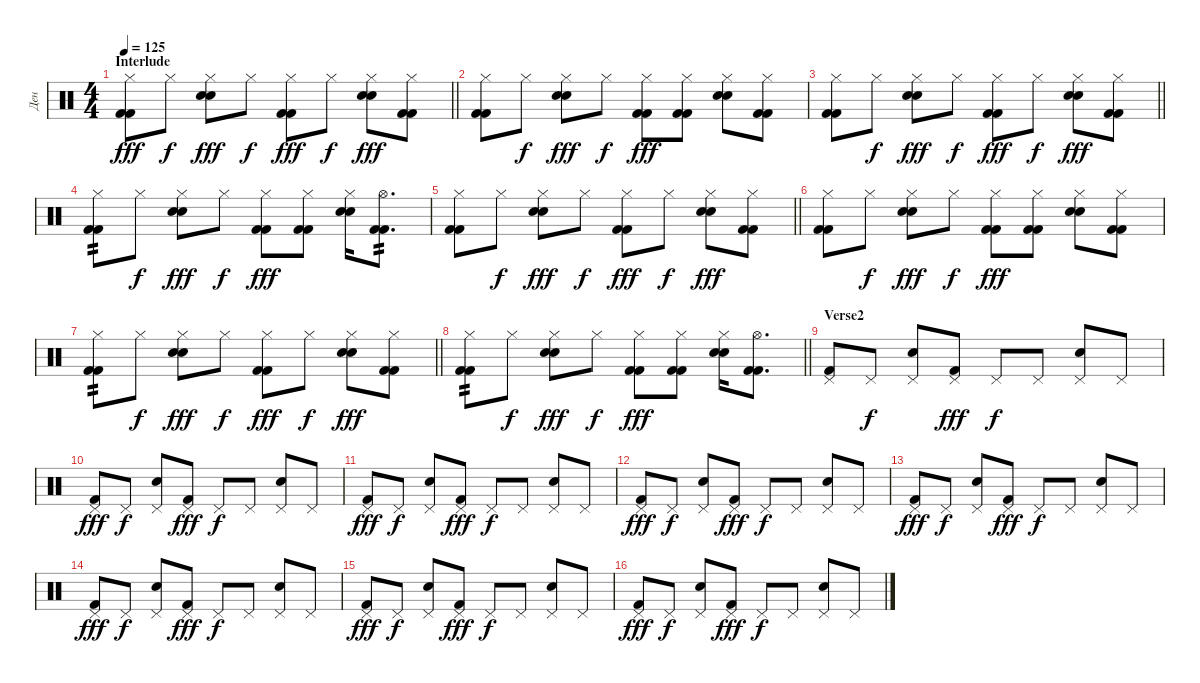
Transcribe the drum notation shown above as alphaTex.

\track ("Ден" "Ден") {instrument percussion}
\staff {score}
\articulation defaults
\ts (4 4)
\section ("" "Interlude")
\tempo 125
\clef neutral
\barLineRight lightlight
\ks c
("Hi-Hat (closed)" "Kick (hit) 2" "Kick (hit) 2").8{dy fff} "Hi-Hat (closed)".8{dy f} ("Hi-Hat (closed)" "Electric Snare (hit)" "Electric Snare (hit)").8{dy fff} "Hi-Hat (closed)".8{dy f} ("Hi-Hat (closed)" "Kick (hit) 2" "Kick (hit) 2").8{dy fff} "Hi-Hat (closed)".8{dy f} ("Hi-Hat (closed)" "Electric Snare (hit)" "Electric Snare (hit)").8{dy fff} ("Hi-Hat (closed)" "Kick (hit) 2" "Kick (hit) 2").8 |
("Hi-Hat (closed)" "Kick (hit) 2" "Kick (hit) 2").8 "Hi-Hat (closed)".8{dy f} ("Hi-Hat (closed)" "Electric Snare (hit)" "Electric Snare (hit)").8{dy fff} "Hi-Hat (closed)".8{dy f} ("Hi-Hat (closed)" "Kick (hit) 2" "Kick (hit) 2").8{dy fff} ("Hi-Hat (closed)" "Kick (hit) 2" "Kick (hit) 2").8 ("Hi-Hat (closed)" "Electric Snare (hit)" "Electric Snare (hit)").8 ("Hi-Hat (closed)" "Kick (hit) 2" "Kick (hit) 2").8 |
\barLineRight lightlight
("Hi-Hat (closed)" "Kick (hit) 2" "Kick (hit) 2").8 "Hi-Hat (closed)".8{dy f} ("Hi-Hat (closed)" "Electric Snare (hit)" "Electric Snare (hit)").8{dy fff} "Hi-Hat (closed)".8{dy f} ("Hi-Hat (closed)" "Kick (hit) 2" "Kick (hit) 2").8{dy fff} "Hi-Hat (closed)".8{dy f} ("Hi-Hat (closed)" "Electric Snare (hit)" "Electric Snare (hit)").8{dy fff} ("Hi-Hat (closed)" "Kick (hit) 2" "Kick (hit) 2").8 |
("Hi-Hat (closed)" "Kick (hit) 2" "Kick (hit) 2").8{tp 2} "Hi-Hat (closed)".8{dy f} ("Hi-Hat (closed)" "Electric Snare (hit)" "Electric Snare (hit)").8{dy fff} "Hi-Hat (closed)".8{dy f} ("Hi-Hat (closed)" "Kick (hit) 2" "Kick (hit) 2").8{dy fff} ("Hi-Hat (closed)" "Kick (hit) 2" "Kick (hit) 2").8 ("Hi-Hat (closed)" "Electric Snare (hit)" "Electric Snare (hit)").16 ("Hi-Hat (open)" "Kick (hit) 2" "Kick (hit) 2").8{d tp 2} |
\barLineRight lightlight
("Hi-Hat (closed)" "Kick (hit) 2" "Kick (hit) 2").8 "Hi-Hat (closed)".8{dy f} ("Hi-Hat (closed)" "Electric Snare (hit)" "Electric Snare (hit)").8{dy fff} "Hi-Hat (closed)".8{dy f} ("Hi-Hat (closed)" "Kick (hit) 2" "Kick (hit) 2").8{dy fff} "Hi-Hat (closed)".8{dy f} ("Hi-Hat (closed)" "Electric Snare (hit)" "Electric Snare (hit)").8{dy fff} ("Hi-Hat (closed)" "Kick (hit) 2" "Kick (hit) 2").8 |
("Hi-Hat (closed)" "Kick (hit) 2" "Kick (hit) 2").8 "Hi-Hat (closed)".8{dy f} ("Hi-Hat (closed)" "Electric Snare (hit)" "Electric Snare (hit)").8{dy fff} "Hi-Hat (closed)".8{dy f} ("Hi-Hat (closed)" "Kick (hit) 2" "Kick (hit) 2").8{dy fff} ("Hi-Hat (closed)" "Kick (hit) 2" "Kick (hit) 2").8 ("Hi-Hat (closed)" "Electric Snare (hit)" "Electric Snare (hit)").8 ("Hi-Hat (closed)" "Kick (hit) 2" "Kick (hit) 2").8 |
\barLineRight lightlight
("Hi-Hat (closed)" "Kick (hit) 2" "Kick (hit) 2").8{tp 2} "Hi-Hat (closed)".8{dy f} ("Hi-Hat (closed)" "Electric Snare (hit)" "Electric Snare (hit)").8{dy fff} "Hi-Hat (closed)".8{dy f} ("Hi-Hat (closed)" "Kick (hit) 2" "Kick (hit) 2").8{dy fff} "Hi-Hat (closed)".8{dy f} ("Hi-Hat (closed)" "Electric Snare (hit)" "Electric Snare (hit)").8{dy fff} ("Hi-Hat (closed)" "Kick (hit) 2" "Kick (hit) 2").8 |
\barLineRight lightlight
("Hi-Hat (closed)" "Kick (hit) 2" "Kick (hit) 2").8{tp 2} "Hi-Hat (closed)".8{dy f} ("Hi-Hat (closed)" "Electric Snare (hit)" "Electric Snare (hit)").8{dy fff} "Hi-Hat (closed)".8{dy f} ("Hi-Hat (closed)" "Kick (hit) 2" "Kick (hit) 2").8{dy fff} ("Hi-Hat (closed)" "Kick (hit) 2" "Kick (hit) 2").8 ("Hi-Hat (closed)" "Electric Snare (hit)" "Electric Snare (hit)").16 ("Hi-Hat (open)" "Kick (hit) 2" "Kick (hit) 2").8{d} |
\section ("" "Verse2")
("Kick (hit) 2" "Pedal Hi-Hat (hit)").8 "Pedal Hi-Hat (hit)".8{dy f} ("Electric Snare (hit)" "Pedal Hi-Hat (hit)").8 ("Kick (hit) 2" "Pedal Hi-Hat (hit)").8{dy fff} "Pedal Hi-Hat (hit)".8{dy f} "Pedal Hi-Hat (hit)".8 ("Electric Snare (hit)" "Pedal Hi-Hat (hit)").8 "Pedal Hi-Hat (hit)".8 |
("Kick (hit) 2" "Pedal Hi-Hat (hit)").8{dy fff} "Pedal Hi-Hat (hit)".8{dy f} ("Electric Snare (hit)" "Pedal Hi-Hat (hit)").8 ("Kick (hit) 2" "Pedal Hi-Hat (hit)").8{dy fff} "Pedal Hi-Hat (hit)".8{dy f} "Pedal Hi-Hat (hit)".8 ("Electric Snare (hit)" "Pedal Hi-Hat (hit)").8 "Pedal Hi-Hat (hit)".8 |
("Kick (hit) 2" "Pedal Hi-Hat (hit)").8{dy fff} "Pedal Hi-Hat (hit)".8{dy f} ("Electric Snare (hit)" "Pedal Hi-Hat (hit)").8 ("Kick (hit) 2" "Pedal Hi-Hat (hit)").8{dy fff} "Pedal Hi-Hat (hit)".8{dy f} "Pedal Hi-Hat (hit)".8 ("Electric Snare (hit)" "Pedal Hi-Hat (hit)").8 "Pedal Hi-Hat (hit)".8 |
("Kick (hit) 2" "Pedal Hi-Hat (hit)").8{dy fff} "Pedal Hi-Hat (hit)".8{dy f} ("Electric Snare (hit)" "Pedal Hi-Hat (hit)").8 ("Kick (hit) 2" "Pedal Hi-Hat (hit)").8{dy fff} "Pedal Hi-Hat (hit)".8{dy f} "Pedal Hi-Hat (hit)".8 ("Electric Snare (hit)" "Pedal Hi-Hat (hit)").8 "Pedal Hi-Hat (hit)".8 |
("Kick (hit) 2" "Pedal Hi-Hat (hit)").8{dy fff} "Pedal Hi-Hat (hit)".8{dy f} ("Electric Snare (hit)" "Pedal Hi-Hat (hit)").8 ("Kick (hit) 2" "Pedal Hi-Hat (hit)").8{dy fff} "Pedal Hi-Hat (hit)".8{dy f} "Pedal Hi-Hat (hit)".8 ("Electric Snare (hit)" "Pedal Hi-Hat (hit)").8 "Pedal Hi-Hat (hit)".8 |
("Kick (hit) 2" "Pedal Hi-Hat (hit)").8{dy fff} "Pedal Hi-Hat (hit)".8{dy f} ("Electric Snare (hit)" "Pedal Hi-Hat (hit)").8 ("Kick (hit) 2" "Pedal Hi-Hat (hit)").8{dy fff} "Pedal Hi-Hat (hit)".8{dy f} "Pedal Hi-Hat (hit)".8 ("Electric Snare (hit)" "Pedal Hi-Hat (hit)").8 "Pedal Hi-Hat (hit)".8 |
("Kick (hit) 2" "Pedal Hi-Hat (hit)").8{dy fff} "Pedal Hi-Hat (hit)".8{dy f} ("Electric Snare (hit)" "Pedal Hi-Hat (hit)").8 ("Kick (hit) 2" "Pedal Hi-Hat (hit)").8{dy fff} "Pedal Hi-Hat (hit)".8{dy f} "Pedal Hi-Hat (hit)".8 ("Electric Snare (hit)" "Pedal Hi-Hat (hit)").8 "Pedal Hi-Hat (hit)".8 |
("Kick (hit) 2" "Pedal Hi-Hat (hit)").8{dy fff} "Pedal Hi-Hat (hit)".8{dy f} ("Electric Snare (hit)" "Pedal Hi-Hat (hit)").8 ("Kick (hit) 2" "Pedal Hi-Hat (hit)").8{dy fff} "Pedal Hi-Hat (hit)".8{dy f} "Pedal Hi-Hat (hit)".8 ("Electric Snare (hit)" "Pedal Hi-Hat (hit)").8 "Pedal Hi-Hat (hit)".8
